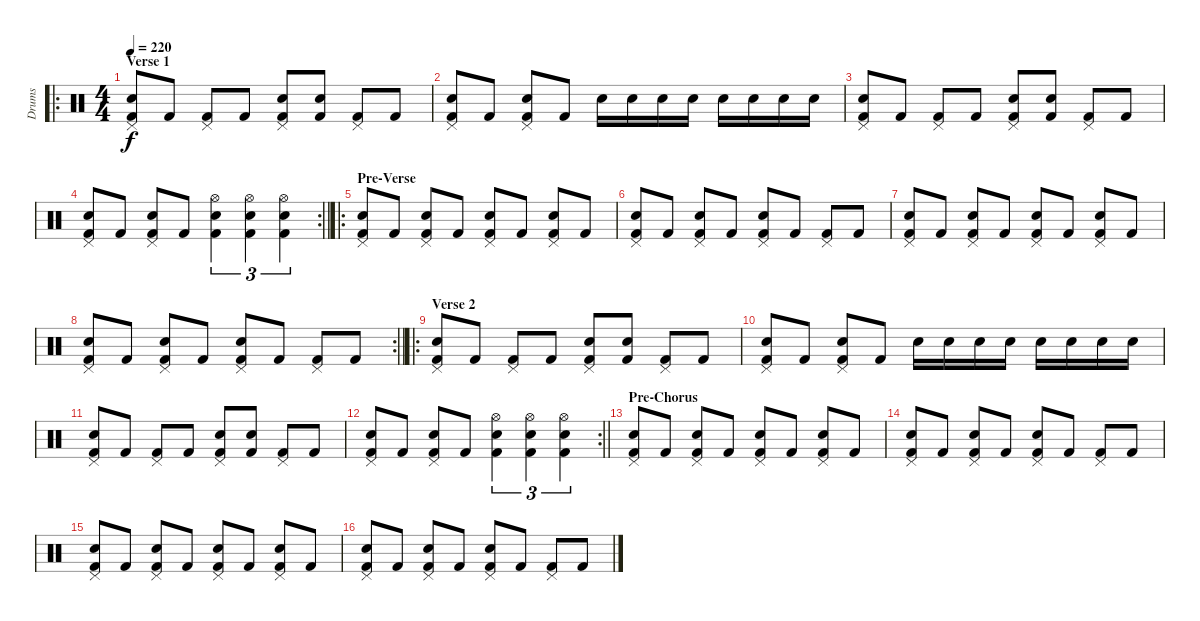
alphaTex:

\track ("Drums" "Drums") {instrument percussion}
\staff {score}
\articulation defaults
\ro
\ts (4 4)
\section ("" "Verse 1")
\tempo 220
\clef neutral
\ks c
("Pedal Hi-Hat (hit)" "Snare (hit) 2" "Kick (hit) 2").8{dy f} "Kick (hit) 2".8 ("Pedal Hi-Hat (hit)" "Kick (hit) 2").8 "Kick (hit) 2".8 ("Pedal Hi-Hat (hit)" "Snare (hit) 2" "Kick (hit) 2").8 ("Snare (hit) 2" "Kick (hit) 2").8 ("Pedal Hi-Hat (hit)" "Kick (hit) 2").8 "Kick (hit) 2".8 |
("Pedal Hi-Hat (hit)" "Snare (hit) 2" "Kick (hit) 2").8 "Kick (hit) 2".8 ("Pedal Hi-Hat (hit)" "Snare (hit) 2" "Kick (hit) 2").8 "Kick (hit) 2".8 "Snare (hit) 2".16 "Snare (hit) 2".16 "Snare (hit) 2".16 "Snare (hit) 2".16 "Snare (hit) 2".16 "Snare (hit) 2".16 "Snare (hit) 2".16 "Snare (hit) 2".16 |
("Pedal Hi-Hat (hit)" "Snare (hit) 2" "Kick (hit) 2").8 "Kick (hit) 2".8 ("Pedal Hi-Hat (hit)" "Kick (hit) 2").8 "Kick (hit) 2".8 ("Pedal Hi-Hat (hit)" "Snare (hit) 2" "Kick (hit) 2").8 ("Snare (hit) 2" "Kick (hit) 2").8 ("Pedal Hi-Hat (hit)" "Kick (hit) 2").8 "Kick (hit) 2".8 |
\rc 2
\barLineRight lightlight
("Pedal Hi-Hat (hit)" "Snare (hit) 2" "Kick (hit) 2").8 "Kick (hit) 2".8 ("Pedal Hi-Hat (hit)" "Snare (hit) 2" "Kick (hit) 2").8 "Kick (hit) 2".8 ("Hi-Hat (open)" "Snare (hit) 2" "Kick (hit) 2").4{tu (3 2)} ("Hi-Hat (open)" "Snare (hit) 2" "Kick (hit) 2").4{tu (3 2)} ("Hi-Hat (open)" "Snare (hit) 2" "Kick (hit) 2").4{tu (3 2)} |
\ro
\section ("" "Pre-Verse")
("Pedal Hi-Hat (hit)" "Snare (hit) 2" "Kick (hit) 2").8 "Kick (hit) 2".8 ("Pedal Hi-Hat (hit)" "Snare (hit) 2" "Kick (hit) 2").8 "Kick (hit) 2".8 ("Pedal Hi-Hat (hit)" "Snare (hit) 2" "Kick (hit) 2").8 "Kick (hit) 2".8 ("Pedal Hi-Hat (hit)" "Snare (hit) 2" "Kick (hit) 2").8 "Kick (hit) 2".8 |
("Pedal Hi-Hat (hit)" "Snare (hit) 2" "Kick (hit) 2").8 "Kick (hit) 2".8 ("Pedal Hi-Hat (hit)" "Snare (hit) 2" "Kick (hit) 2").8 "Kick (hit) 2".8 ("Pedal Hi-Hat (hit)" "Snare (hit) 2" "Kick (hit) 2").8 "Kick (hit) 2".8 ("Pedal Hi-Hat (hit)" "Kick (hit) 2").8 "Kick (hit) 2".8 |
("Pedal Hi-Hat (hit)" "Snare (hit) 2" "Kick (hit) 2").8 "Kick (hit) 2".8 ("Pedal Hi-Hat (hit)" "Snare (hit) 2" "Kick (hit) 2").8 "Kick (hit) 2".8 ("Pedal Hi-Hat (hit)" "Snare (hit) 2" "Kick (hit) 2").8 "Kick (hit) 2".8 ("Pedal Hi-Hat (hit)" "Snare (hit) 2" "Kick (hit) 2").8 "Kick (hit) 2".8 |
\rc 2
\barLineRight lightlight
("Pedal Hi-Hat (hit)" "Snare (hit) 2" "Kick (hit) 2").8 "Kick (hit) 2".8 ("Pedal Hi-Hat (hit)" "Snare (hit) 2" "Kick (hit) 2").8 "Kick (hit) 2".8 ("Pedal Hi-Hat (hit)" "Snare (hit) 2" "Kick (hit) 2").8 "Kick (hit) 2".8 ("Pedal Hi-Hat (hit)" "Kick (hit) 2").8 "Kick (hit) 2".8 |
\ro
\section ("" "Verse 2")
("Pedal Hi-Hat (hit)" "Snare (hit) 2" "Kick (hit) 2").8 "Kick (hit) 2".8 ("Pedal Hi-Hat (hit)" "Kick (hit) 2").8 "Kick (hit) 2".8 ("Pedal Hi-Hat (hit)" "Snare (hit) 2" "Kick (hit) 2").8 ("Snare (hit) 2" "Kick (hit) 2").8 ("Pedal Hi-Hat (hit)" "Kick (hit) 2").8 "Kick (hit) 2".8 |
("Pedal Hi-Hat (hit)" "Snare (hit) 2" "Kick (hit) 2").8 "Kick (hit) 2".8 ("Pedal Hi-Hat (hit)" "Snare (hit) 2" "Kick (hit) 2").8 "Kick (hit) 2".8 "Snare (hit) 2".16 "Snare (hit) 2".16 "Snare (hit) 2".16 "Snare (hit) 2".16 "Snare (hit) 2".16 "Snare (hit) 2".16 "Snare (hit) 2".16 "Snare (hit) 2".16 |
("Pedal Hi-Hat (hit)" "Snare (hit) 2" "Kick (hit) 2").8 "Kick (hit) 2".8 ("Pedal Hi-Hat (hit)" "Kick (hit) 2").8 "Kick (hit) 2".8 ("Pedal Hi-Hat (hit)" "Snare (hit) 2" "Kick (hit) 2").8 ("Snare (hit) 2" "Kick (hit) 2").8 ("Pedal Hi-Hat (hit)" "Kick (hit) 2").8 "Kick (hit) 2".8 |
\rc 2
\barLineRight lightlight
("Pedal Hi-Hat (hit)" "Snare (hit) 2" "Kick (hit) 2").8 "Kick (hit) 2".8 ("Pedal Hi-Hat (hit)" "Snare (hit) 2" "Kick (hit) 2").8 "Kick (hit) 2".8 ("Hi-Hat (open)" "Snare (hit) 2" "Kick (hit) 2").4{tu (3 2)} ("Hi-Hat (open)" "Snare (hit) 2" "Kick (hit) 2").4{tu (3 2)} ("Hi-Hat (open)" "Snare (hit) 2" "Kick (hit) 2").4{tu (3 2)} |
\section ("" "Pre-Chorus")
("Pedal Hi-Hat (hit)" "Snare (hit) 2" "Kick (hit) 2").8 "Kick (hit) 2".8 ("Pedal Hi-Hat (hit)" "Snare (hit) 2" "Kick (hit) 2").8 "Kick (hit) 2".8 ("Pedal Hi-Hat (hit)" "Snare (hit) 2" "Kick (hit) 2").8 "Kick (hit) 2".8 ("Pedal Hi-Hat (hit)" "Snare (hit) 2" "Kick (hit) 2").8 "Kick (hit) 2".8 |
("Pedal Hi-Hat (hit)" "Snare (hit) 2" "Kick (hit) 2").8 "Kick (hit) 2".8 ("Pedal Hi-Hat (hit)" "Snare (hit) 2" "Kick (hit) 2").8 "Kick (hit) 2".8 ("Pedal Hi-Hat (hit)" "Snare (hit) 2" "Kick (hit) 2").8 "Kick (hit) 2".8 ("Pedal Hi-Hat (hit)" "Kick (hit) 2").8 "Kick (hit) 2".8 |
("Pedal Hi-Hat (hit)" "Snare (hit) 2" "Kick (hit) 2").8 "Kick (hit) 2".8 ("Pedal Hi-Hat (hit)" "Snare (hit) 2" "Kick (hit) 2").8 "Kick (hit) 2".8 ("Pedal Hi-Hat (hit)" "Snare (hit) 2" "Kick (hit) 2").8 "Kick (hit) 2".8 ("Pedal Hi-Hat (hit)" "Snare (hit) 2" "Kick (hit) 2").8 "Kick (hit) 2".8 |
("Pedal Hi-Hat (hit)" "Snare (hit) 2" "Kick (hit) 2").8 "Kick (hit) 2".8 ("Pedal Hi-Hat (hit)" "Snare (hit) 2" "Kick (hit) 2").8 "Kick (hit) 2".8 ("Pedal Hi-Hat (hit)" "Snare (hit) 2" "Kick (hit) 2").8 "Kick (hit) 2".8 ("Pedal Hi-Hat (hit)" "Kick (hit) 2").8 "Kick (hit) 2".8
